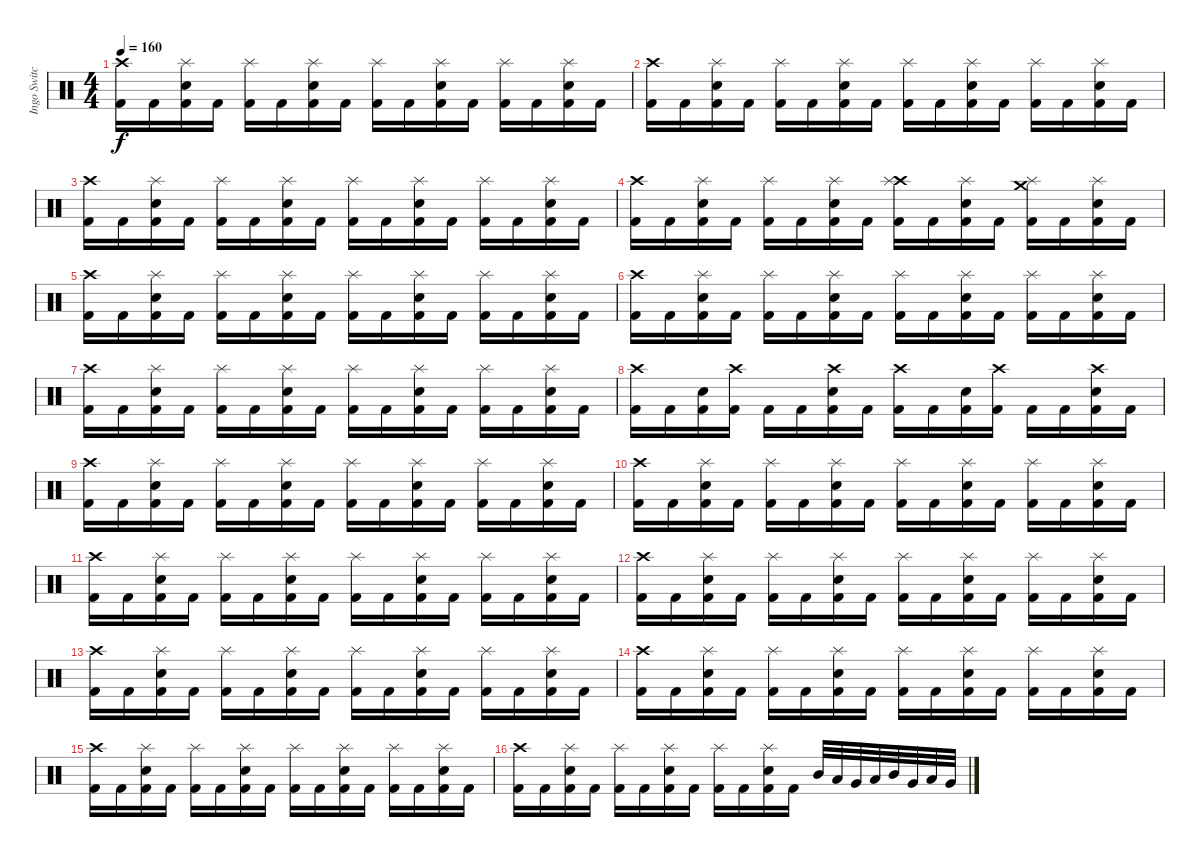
\track ("Ingo Switchenberg" "Ingo Switc") {instrument percussion}
\staff {score}
\articulation defaults
\ts (4 4)
\tempo 160
\clef neutral
\ks c
("Crash high (hit)" "Kick (hit) 2").16{dy f} "Kick (hit) 2".16 ("Snare (hit) 2" "Kick (hit) 2" "Splash (hit)").16 "Kick (hit) 2".16 ("Kick (hit) 2" "Splash (hit)").16 "Kick (hit) 2".16 ("Snare (hit) 2" "Kick (hit) 2" "Splash (hit)").16 "Kick (hit) 2".16 ("Kick (hit) 2" "Splash (hit)").16 "Kick (hit) 2".16 ("Snare (hit) 2" "Kick (hit) 2" "Splash (hit)").16 "Kick (hit) 2".16 ("Kick (hit) 2" "Splash (hit)").16 "Kick (hit) 2".16 ("Snare (hit) 2" "Kick (hit) 2" "Splash (hit)").16 "Kick (hit) 2".16 |
("Crash high (hit)" "Kick (hit) 2").16 "Kick (hit) 2".16 ("Snare (hit) 2" "Kick (hit) 2" "Splash (hit)").16 "Kick (hit) 2".16 ("Kick (hit) 2" "Splash (hit)").16 "Kick (hit) 2".16 ("Snare (hit) 2" "Kick (hit) 2" "Splash (hit)").16 "Kick (hit) 2".16 ("Kick (hit) 2" "Splash (hit)").16 "Kick (hit) 2".16 ("Snare (hit) 2" "Kick (hit) 2" "Splash (hit)").16 "Kick (hit) 2".16 ("Kick (hit) 2" "Splash (hit)").16 "Kick (hit) 2".16 ("Snare (hit) 2" "Kick (hit) 2" "Splash (hit)").16 "Kick (hit) 2".16 |
("Crash high (hit)" "Kick (hit) 2").16 "Kick (hit) 2".16 ("Snare (hit) 2" "Kick (hit) 2" "Splash (hit)").16 "Kick (hit) 2".16 ("Kick (hit) 2" "Splash (hit)").16 "Kick (hit) 2".16 ("Snare (hit) 2" "Kick (hit) 2" "Splash (hit)").16 "Kick (hit) 2".16 ("Kick (hit) 2" "Splash (hit)").16 "Kick (hit) 2".16 ("Snare (hit) 2" "Kick (hit) 2" "Splash (hit)").16 "Kick (hit) 2".16 ("Kick (hit) 2" "Splash (hit)").16 "Kick (hit) 2".16 ("Snare (hit) 2" "Kick (hit) 2" "Splash (hit)").16 "Kick (hit) 2".16 |
("Crash high (hit)" "Kick (hit) 2").16 "Kick (hit) 2".16 ("Snare (hit) 2" "Kick (hit) 2" "Splash (hit)").16 "Kick (hit) 2".16 ("Kick (hit) 2" "Splash (hit)").16 "Kick (hit) 2".16 ("Snare (hit) 2" "Kick (hit) 2" "Splash (hit)").16 "Kick (hit) 2".16 ("Crash high (hit)" "Kick (hit) 2" "Splash (hit)").16 "Kick (hit) 2".16 ("Snare (hit) 2" "Kick (hit) 2" "Splash (hit)").16 "Kick (hit) 2".16 ("Crash medium (hit)" "Kick (hit) 2" "Splash (hit)").16 "Kick (hit) 2".16 ("Snare (hit) 2" "Kick (hit) 2" "Splash (hit)").16 "Kick (hit) 2".16 |
("Crash high (hit)" "Kick (hit) 2").16 "Kick (hit) 2".16 ("Snare (hit) 2" "Kick (hit) 2" "Splash (hit)").16 "Kick (hit) 2".16 ("Kick (hit) 2" "Splash (hit)").16 "Kick (hit) 2".16 ("Snare (hit) 2" "Kick (hit) 2" "Splash (hit)").16 "Kick (hit) 2".16 ("Kick (hit) 2" "Splash (hit)").16 "Kick (hit) 2".16 ("Snare (hit) 2" "Kick (hit) 2" "Splash (hit)").16 "Kick (hit) 2".16 ("Kick (hit) 2" "Splash (hit)").16 "Kick (hit) 2".16 ("Snare (hit) 2" "Kick (hit) 2" "Splash (hit)").16 "Kick (hit) 2".16 |
("Crash high (hit)" "Kick (hit) 2").16 "Kick (hit) 2".16 ("Snare (hit) 2" "Kick (hit) 2" "Splash (hit)").16 "Kick (hit) 2".16 ("Kick (hit) 2" "Splash (hit)").16 "Kick (hit) 2".16 ("Snare (hit) 2" "Kick (hit) 2" "Splash (hit)").16 "Kick (hit) 2".16 ("Kick (hit) 2" "Splash (hit)").16 "Kick (hit) 2".16 ("Snare (hit) 2" "Kick (hit) 2" "Splash (hit)").16 "Kick (hit) 2".16 ("Kick (hit) 2" "Splash (hit)").16 "Kick (hit) 2".16 ("Snare (hit) 2" "Kick (hit) 2" "Splash (hit)").16 "Kick (hit) 2".16 |
("Crash high (hit)" "Kick (hit) 2").16 "Kick (hit) 2".16 ("Snare (hit) 2" "Kick (hit) 2" "Splash (hit)").16 "Kick (hit) 2".16 ("Kick (hit) 2" "Splash (hit)").16 "Kick (hit) 2".16 ("Snare (hit) 2" "Kick (hit) 2" "Splash (hit)").16 "Kick (hit) 2".16 ("Kick (hit) 2" "Splash (hit)").16 "Kick (hit) 2".16 ("Snare (hit) 2" "Kick (hit) 2" "Splash (hit)").16 "Kick (hit) 2".16 ("Kick (hit) 2" "Splash (hit)").16 "Kick (hit) 2".16 ("Snare (hit) 2" "Kick (hit) 2" "Splash (hit)").16 "Kick (hit) 2".16 |
("Crash high (hit)" "Kick (hit) 2").16 "Kick (hit) 2".16 ("Snare (hit) 2" "Kick (hit) 2").16 ("Kick (hit) 2" "Crash high (hit)").16 "Kick (hit) 2".16 "Kick (hit) 2".16 ("Snare (hit) 2" "Kick (hit) 2" "Crash high (hit)").16 "Kick (hit) 2".16 ("Kick (hit) 2" "Crash high (hit)").16 "Kick (hit) 2".16 ("Snare (hit) 2" "Kick (hit) 2").16 ("Kick (hit) 2" "Crash high (hit)").16 "Kick (hit) 2".16 "Kick (hit) 2".16 ("Snare (hit) 2" "Kick (hit) 2" "Crash high (hit)").16 "Kick (hit) 2".16 |
("Crash high (hit)" "Kick (hit) 2").16 "Kick (hit) 2".16 ("Snare (hit) 2" "Kick (hit) 2" "Splash (hit)").16 "Kick (hit) 2".16 ("Kick (hit) 2" "Splash (hit)").16 "Kick (hit) 2".16 ("Snare (hit) 2" "Kick (hit) 2" "Splash (hit)").16 "Kick (hit) 2".16 ("Kick (hit) 2" "Splash (hit)").16 "Kick (hit) 2".16 ("Snare (hit) 2" "Kick (hit) 2" "Splash (hit)").16 "Kick (hit) 2".16 ("Kick (hit) 2" "Splash (hit)").16 "Kick (hit) 2".16 ("Snare (hit) 2" "Kick (hit) 2" "Splash (hit)").16 "Kick (hit) 2".16 |
("Crash high (hit)" "Kick (hit) 2").16 "Kick (hit) 2".16 ("Snare (hit) 2" "Kick (hit) 2" "Splash (hit)").16 "Kick (hit) 2".16 ("Kick (hit) 2" "Splash (hit)").16 "Kick (hit) 2".16 ("Snare (hit) 2" "Kick (hit) 2" "Splash (hit)").16 "Kick (hit) 2".16 ("Kick (hit) 2" "Splash (hit)").16 "Kick (hit) 2".16 ("Snare (hit) 2" "Kick (hit) 2" "Splash (hit)").16 "Kick (hit) 2".16 ("Kick (hit) 2" "Splash (hit)").16 "Kick (hit) 2".16 ("Snare (hit) 2" "Kick (hit) 2" "Splash (hit)").16 "Kick (hit) 2".16 |
("Crash high (hit)" "Kick (hit) 2").16 "Kick (hit) 2".16 ("Snare (hit) 2" "Kick (hit) 2" "Splash (hit)").16 "Kick (hit) 2".16 ("Kick (hit) 2" "Splash (hit)").16 "Kick (hit) 2".16 ("Snare (hit) 2" "Kick (hit) 2" "Splash (hit)").16 "Kick (hit) 2".16 ("Kick (hit) 2" "Splash (hit)").16 "Kick (hit) 2".16 ("Snare (hit) 2" "Kick (hit) 2" "Splash (hit)").16 "Kick (hit) 2".16 ("Kick (hit) 2" "Splash (hit)").16 "Kick (hit) 2".16 ("Snare (hit) 2" "Kick (hit) 2" "Splash (hit)").16 "Kick (hit) 2".16 |
("Crash high (hit)" "Kick (hit) 2").16 "Kick (hit) 2".16 ("Snare (hit) 2" "Kick (hit) 2" "Splash (hit)").16 "Kick (hit) 2".16 ("Kick (hit) 2" "Splash (hit)").16 "Kick (hit) 2".16 ("Snare (hit) 2" "Kick (hit) 2" "Splash (hit)").16 "Kick (hit) 2".16 ("Kick (hit) 2" "Splash (hit)").16 "Kick (hit) 2".16 ("Snare (hit) 2" "Kick (hit) 2" "Splash (hit)").16 "Kick (hit) 2".16 ("Kick (hit) 2" "Splash (hit)").16 "Kick (hit) 2".16 ("Snare (hit) 2" "Kick (hit) 2" "Splash (hit)").16 "Kick (hit) 2".16 |
("Crash high (hit)" "Kick (hit) 2").16 "Kick (hit) 2".16 ("Snare (hit) 2" "Kick (hit) 2" "Splash (hit)").16 "Kick (hit) 2".16 ("Kick (hit) 2" "Splash (hit)").16 "Kick (hit) 2".16 ("Snare (hit) 2" "Kick (hit) 2" "Splash (hit)").16 "Kick (hit) 2".16 ("Kick (hit) 2" "Splash (hit)").16 "Kick (hit) 2".16 ("Snare (hit) 2" "Kick (hit) 2" "Splash (hit)").16 "Kick (hit) 2".16 ("Kick (hit) 2" "Splash (hit)").16 "Kick (hit) 2".16 ("Snare (hit) 2" "Kick (hit) 2" "Splash (hit)").16 "Kick (hit) 2".16 |
("Crash high (hit)" "Kick (hit) 2").16 "Kick (hit) 2".16 ("Snare (hit) 2" "Kick (hit) 2" "Splash (hit)").16 "Kick (hit) 2".16 ("Kick (hit) 2" "Splash (hit)").16 "Kick (hit) 2".16 ("Snare (hit) 2" "Kick (hit) 2" "Splash (hit)").16 "Kick (hit) 2".16 ("Kick (hit) 2" "Splash (hit)").16 "Kick (hit) 2".16 ("Snare (hit) 2" "Kick (hit) 2" "Splash (hit)").16 "Kick (hit) 2".16 ("Kick (hit) 2" "Splash (hit)").16 "Kick (hit) 2".16 ("Snare (hit) 2" "Kick (hit) 2" "Splash (hit)").16 "Kick (hit) 2".16 |
("Crash high (hit)" "Kick (hit) 2").16 "Kick (hit) 2".16 ("Snare (hit) 2" "Kick (hit) 2" "Splash (hit)").16 "Kick (hit) 2".16 ("Kick (hit) 2" "Splash (hit)").16 "Kick (hit) 2".16 ("Snare (hit) 2" "Kick (hit) 2" "Splash (hit)").16 "Kick (hit) 2".16 ("Kick (hit) 2" "Splash (hit)").16 "Kick (hit) 2".16 ("Snare (hit) 2" "Kick (hit) 2" "Splash (hit)").16 "Kick (hit) 2".16 ("Kick (hit) 2" "Splash (hit)").16 "Kick (hit) 2".16 ("Snare (hit) 2" "Kick (hit) 2" "Splash (hit)").16 "Kick (hit) 2".16 |
("Crash high (hit)" "Kick (hit) 2").16 "Kick (hit) 2".16 ("Snare (hit) 2" "Kick (hit) 2" "Splash (hit)").16 "Kick (hit) 2".16 ("Kick (hit) 2" "Splash (hit)").16 "Kick (hit) 2".16 ("Snare (hit) 2" "Kick (hit) 2" "Splash (hit)").16 "Kick (hit) 2".16 ("Kick (hit) 2" "Splash (hit)").16 "Kick (hit) 2".16 ("Snare (hit) 2" "Kick (hit) 2" "Splash (hit)").16 "Kick (hit) 2".16 "Mid Tom (hit)".32 "Low Tom (hit)".32 "Very Low Tom (hit)".32 "Low Tom (hit)".32 "Mid Tom (hit)".32 "Very Low Tom (hit)".32 "Low Tom (hit)".32 "Very Low Tom (hit)".32
